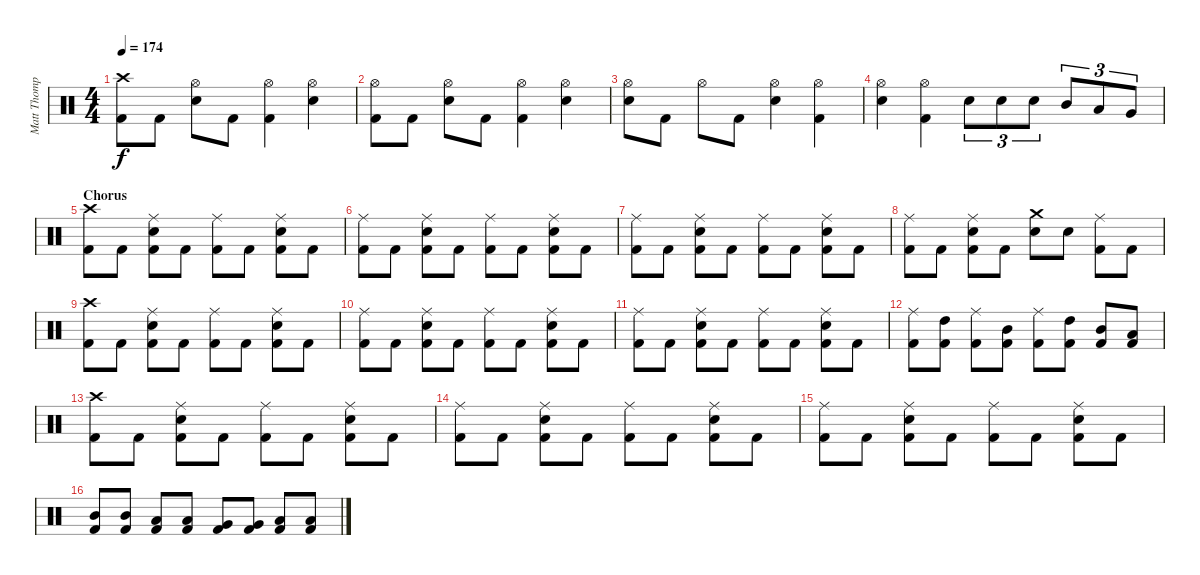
\track ("Matt Thompson" "Matt Thomp") {instrument percussion}
\staff {score}
\articulation defaults
\ts (4 4)
\tempo 174
\clef neutral
\ks c
("Crash high (hit)" "Kick (hit) 2").8{dy f} "Kick (hit) 2".8 ("Hi-Hat (open)" "Snare (hit) 2").8 "Kick (hit) 2".8 ("Hi-Hat (open)" "Kick (hit) 2").4 ("Hi-Hat (open)" "Snare (hit) 2").4 |
("Hi-Hat (open)" "Kick (hit) 2").8 "Kick (hit) 2".8 ("Hi-Hat (open)" "Snare (hit) 2").8 "Kick (hit) 2".8 ("Hi-Hat (open)" "Kick (hit) 2").4 ("Hi-Hat (open)" "Snare (hit) 2").4 |
("Hi-Hat (open)" "Snare (hit) 2").8 "Kick (hit) 2".8 "Hi-Hat (open)".8 "Kick (hit) 2".8 ("Hi-Hat (open)" "Snare (hit) 2").4 ("Hi-Hat (open)" "Kick (hit) 2").4 |
("Hi-Hat (open)" "Snare (hit) 2").4 ("Hi-Hat (open)" "Kick (hit) 2").4 "Snare (hit) 2".8{tu (3 2)} "Snare (hit) 2".8{tu (3 2)} "Snare (hit) 2".8{tu (3 2)} "Mid Tom (hit)".8{tu (3 2)} "Low Tom (hit)".8{tu (3 2)} "Very Low Tom (hit)".8{tu (3 2)} |
\section ("" "Chorus")
("Crash high (hit)" "Kick (hit) 2").8 "Kick (hit) 2".8 ("Ride (middle)" "Snare (hit) 2" "Kick (hit) 2").8 "Kick (hit) 2".8 ("Ride (middle)" "Kick (hit) 2").8 "Kick (hit) 2".8 ("Ride (middle)" "Snare (hit) 2" "Kick (hit) 2").8 "Kick (hit) 2".8 |
("Ride (middle)" "Kick (hit) 2").8 "Kick (hit) 2".8 ("Ride (middle)" "Snare (hit) 2" "Kick (hit) 2").8 "Kick (hit) 2".8 ("Ride (middle)" "Kick (hit) 2").8 "Kick (hit) 2".8 ("Ride (middle)" "Snare (hit) 2" "Kick (hit) 2").8 "Kick (hit) 2".8 |
("Ride (middle)" "Kick (hit) 2").8 "Kick (hit) 2".8 ("Ride (middle)" "Snare (hit) 2" "Kick (hit) 2").8 "Kick (hit) 2".8 ("Ride (middle)" "Kick (hit) 2").8 "Kick (hit) 2".8 ("Ride (middle)" "Snare (hit) 2" "Kick (hit) 2").8 "Kick (hit) 2".8 |
("Ride (middle)" "Kick (hit) 2").8 "Kick (hit) 2".8 ("Ride (middle)" "Snare (hit) 2" "Kick (hit) 2").8 "Kick (hit) 2".8 ("Crash medium (hit)" "Snare (hit) 2").8 "Snare (hit) 2".8 ("Ride (middle)" "Kick (hit) 2").8 "Kick (hit) 2".8 |
("Crash high (hit)" "Kick (hit) 2").8 "Kick (hit) 2".8 ("Ride (middle)" "Snare (hit) 2" "Kick (hit) 2").8 "Kick (hit) 2".8 ("Ride (middle)" "Kick (hit) 2").8 "Kick (hit) 2".8 ("Ride (middle)" "Snare (hit) 2" "Kick (hit) 2").8 "Kick (hit) 2".8 |
("Ride (middle)" "Kick (hit) 2").8 "Kick (hit) 2".8 ("Ride (middle)" "Snare (hit) 2" "Kick (hit) 2").8 "Kick (hit) 2".8 ("Ride (middle)" "Kick (hit) 2").8 "Kick (hit) 2".8 ("Ride (middle)" "Snare (hit) 2" "Kick (hit) 2").8 "Kick (hit) 2".8 |
("Ride (middle)" "Kick (hit) 2").8 "Kick (hit) 2".8 ("Ride (middle)" "Snare (hit) 2" "Kick (hit) 2").8 "Kick (hit) 2".8 ("Ride (middle)" "Kick (hit) 2").8 "Kick (hit) 2".8 ("Ride (middle)" "Snare (hit) 2" "Kick (hit) 2").8 "Kick (hit) 2".8 |
("Ride (middle)" "Kick (hit) 2").8 ("High Tom (hit)" "Kick (hit) 2").8 ("Ride (middle)" "Kick (hit) 2").8 ("Mid Tom (hit)" "Kick (hit) 2").8 ("Ride (middle)" "Kick (hit) 2").8 ("High Tom (hit)" "Kick (hit) 2").8 ("Mid Tom (hit)" "Kick (hit) 2").8 ("Low Tom (hit)" "Kick (hit) 2").8 |
("Crash high (hit)" "Kick (hit) 2").8 "Kick (hit) 2".8 ("Ride (middle)" "Snare (hit) 2" "Kick (hit) 2").8 "Kick (hit) 2".8 ("Ride (middle)" "Kick (hit) 2").8 "Kick (hit) 2".8 ("Ride (middle)" "Snare (hit) 2" "Kick (hit) 2").8 "Kick (hit) 2".8 |
("Ride (middle)" "Kick (hit) 2").8 "Kick (hit) 2".8 ("Ride (middle)" "Snare (hit) 2" "Kick (hit) 2").8 "Kick (hit) 2".8 ("Ride (middle)" "Kick (hit) 2").8 "Kick (hit) 2".8 ("Ride (middle)" "Snare (hit) 2" "Kick (hit) 2").8 "Kick (hit) 2".8 |
("Ride (middle)" "Kick (hit) 2").8 "Kick (hit) 2".8 ("Ride (middle)" "Snare (hit) 2" "Kick (hit) 2").8 "Kick (hit) 2".8 ("Ride (middle)" "Kick (hit) 2").8 "Kick (hit) 2".8 ("Ride (middle)" "Snare (hit) 2" "Kick (hit) 2").8 "Kick (hit) 2".8 |
("Mid Tom (hit)" "Kick (hit) 2").8 ("Mid Tom (hit)" "Kick (hit) 2").8 ("Low Tom (hit)" "Kick (hit) 2").8 ("Low Tom (hit)" "Kick (hit) 2").8 ("Very Low Tom (hit)" "Kick (hit) 2").8 ("Very Low Tom (hit)" "Kick (hit) 2").8 ("Low Floor Tom (hit)" "Kick (hit) 2").8 ("Low Floor Tom (hit)" "Kick (hit) 2").8
